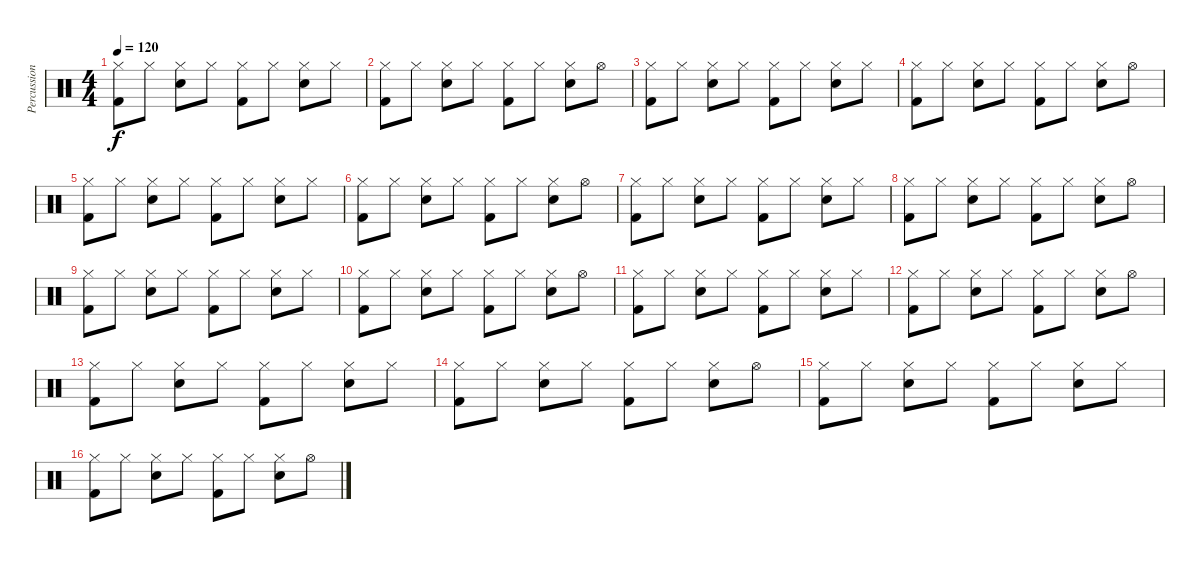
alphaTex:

\track ("Percussion" "Percussion") {instrument percussion}
\staff {score}
\articulation defaults
\ts (4 4)
\tempo 120
\clef neutral
\ks c
("Kick (hit) 2" "Hi-Hat (closed)").8{dy f} "Hi-Hat (closed)".8 ("Electric Snare (hit)" "Hi-Hat (closed)").8 "Hi-Hat (closed)".8 ("Kick (hit) 2" "Hi-Hat (closed)").8 "Hi-Hat (closed)".8 ("Electric Snare (hit)" "Hi-Hat (closed)").8 "Hi-Hat (closed)".8 |
("Kick (hit) 2" "Hi-Hat (closed)").8 "Hi-Hat (closed)".8 ("Electric Snare (hit)" "Hi-Hat (closed)").8 "Hi-Hat (closed)".8 ("Kick (hit) 2" "Hi-Hat (closed)").8 "Hi-Hat (closed)".8 ("Electric Snare (hit)" "Hi-Hat (closed)").8 "Hi-Hat (open)".8 |
("Kick (hit) 2" "Hi-Hat (closed)").8 "Hi-Hat (closed)".8 ("Electric Snare (hit)" "Hi-Hat (closed)").8 "Hi-Hat (closed)".8 ("Kick (hit) 2" "Hi-Hat (closed)").8 "Hi-Hat (closed)".8 ("Electric Snare (hit)" "Hi-Hat (closed)").8 "Hi-Hat (closed)".8 |
("Kick (hit) 2" "Hi-Hat (closed)").8 "Hi-Hat (closed)".8 ("Electric Snare (hit)" "Hi-Hat (closed)").8 "Hi-Hat (closed)".8 ("Kick (hit) 2" "Hi-Hat (closed)").8 "Hi-Hat (closed)".8 ("Electric Snare (hit)" "Hi-Hat (closed)").8 "Hi-Hat (open)".8 |
("Kick (hit) 2" "Hi-Hat (closed)").8 "Hi-Hat (closed)".8 ("Electric Snare (hit)" "Hi-Hat (closed)").8 "Hi-Hat (closed)".8 ("Kick (hit) 2" "Hi-Hat (closed)").8 "Hi-Hat (closed)".8 ("Electric Snare (hit)" "Hi-Hat (closed)").8 "Hi-Hat (closed)".8 |
("Kick (hit) 2" "Hi-Hat (closed)").8 "Hi-Hat (closed)".8 ("Electric Snare (hit)" "Hi-Hat (closed)").8 "Hi-Hat (closed)".8 ("Kick (hit) 2" "Hi-Hat (closed)").8 "Hi-Hat (closed)".8 ("Electric Snare (hit)" "Hi-Hat (closed)").8 "Hi-Hat (open)".8 |
("Kick (hit) 2" "Hi-Hat (closed)").8 "Hi-Hat (closed)".8 ("Electric Snare (hit)" "Hi-Hat (closed)").8 "Hi-Hat (closed)".8 ("Kick (hit) 2" "Hi-Hat (closed)").8 "Hi-Hat (closed)".8 ("Electric Snare (hit)" "Hi-Hat (closed)").8 "Hi-Hat (closed)".8 |
("Kick (hit) 2" "Hi-Hat (closed)").8 "Hi-Hat (closed)".8 ("Electric Snare (hit)" "Hi-Hat (closed)").8 "Hi-Hat (closed)".8 ("Kick (hit) 2" "Hi-Hat (closed)").8 "Hi-Hat (closed)".8 ("Electric Snare (hit)" "Hi-Hat (closed)").8 "Hi-Hat (open)".8 |
("Kick (hit) 2" "Hi-Hat (closed)").8 "Hi-Hat (closed)".8 ("Electric Snare (hit)" "Hi-Hat (closed)").8 "Hi-Hat (closed)".8 ("Kick (hit) 2" "Hi-Hat (closed)").8 "Hi-Hat (closed)".8 ("Electric Snare (hit)" "Hi-Hat (closed)").8 "Hi-Hat (closed)".8 |
("Kick (hit) 2" "Hi-Hat (closed)").8 "Hi-Hat (closed)".8 ("Electric Snare (hit)" "Hi-Hat (closed)").8 "Hi-Hat (closed)".8 ("Kick (hit) 2" "Hi-Hat (closed)").8 "Hi-Hat (closed)".8 ("Electric Snare (hit)" "Hi-Hat (closed)").8 "Hi-Hat (open)".8 |
("Kick (hit) 2" "Hi-Hat (closed)").8 "Hi-Hat (closed)".8 ("Electric Snare (hit)" "Hi-Hat (closed)").8 "Hi-Hat (closed)".8 ("Kick (hit) 2" "Hi-Hat (closed)").8 "Hi-Hat (closed)".8 ("Electric Snare (hit)" "Hi-Hat (closed)").8 "Hi-Hat (closed)".8 |
("Kick (hit) 2" "Hi-Hat (closed)").8 "Hi-Hat (closed)".8 ("Electric Snare (hit)" "Hi-Hat (closed)").8 "Hi-Hat (closed)".8 ("Kick (hit) 2" "Hi-Hat (closed)").8 "Hi-Hat (closed)".8 ("Electric Snare (hit)" "Hi-Hat (closed)").8 "Hi-Hat (open)".8 |
("Kick (hit) 2" "Hi-Hat (closed)").8 "Hi-Hat (closed)".8 ("Electric Snare (hit)" "Hi-Hat (closed)").8 "Hi-Hat (closed)".8 ("Kick (hit) 2" "Hi-Hat (closed)").8 "Hi-Hat (closed)".8 ("Electric Snare (hit)" "Hi-Hat (closed)").8 "Hi-Hat (closed)".8 |
("Kick (hit) 2" "Hi-Hat (closed)").8 "Hi-Hat (closed)".8 ("Electric Snare (hit)" "Hi-Hat (closed)").8 "Hi-Hat (closed)".8 ("Kick (hit) 2" "Hi-Hat (closed)").8 "Hi-Hat (closed)".8 ("Electric Snare (hit)" "Hi-Hat (closed)").8 "Hi-Hat (open)".8 |
("Kick (hit) 2" "Hi-Hat (closed)").8 "Hi-Hat (closed)".8 ("Electric Snare (hit)" "Hi-Hat (closed)").8 "Hi-Hat (closed)".8 ("Kick (hit) 2" "Hi-Hat (closed)").8 "Hi-Hat (closed)".8 ("Electric Snare (hit)" "Hi-Hat (closed)").8 "Hi-Hat (closed)".8 |
("Kick (hit) 2" "Hi-Hat (closed)").8 "Hi-Hat (closed)".8 ("Electric Snare (hit)" "Hi-Hat (closed)").8 "Hi-Hat (closed)".8 ("Kick (hit) 2" "Hi-Hat (closed)").8 "Hi-Hat (closed)".8 ("Electric Snare (hit)" "Hi-Hat (closed)").8 "Hi-Hat (open)".8
